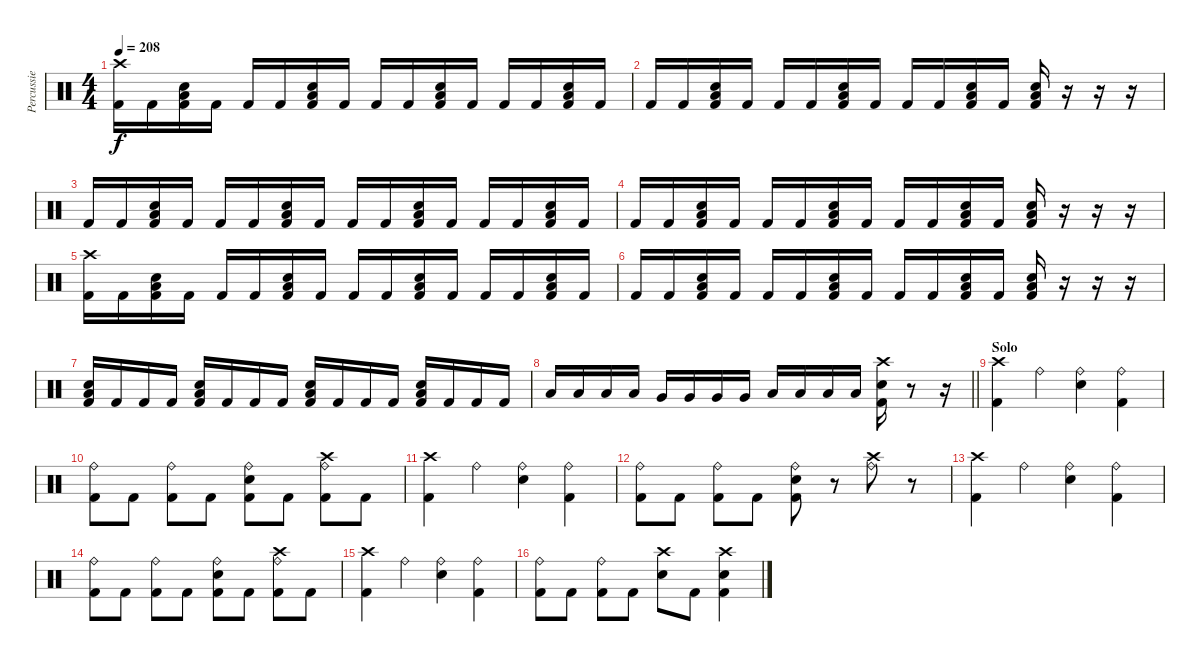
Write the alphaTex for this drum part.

\track ("Percussie" "Percussie") {instrument percussion}
\staff {score}
\articulation defaults
\ts (4 4)
\tempo 208
\clef neutral
\ks c
("Crash high (hit)" "Kick (hit) 2").16{dy f} "Kick (hit) 2".16 ("Low Tom (hit)" "Electric Snare (hit)" "Kick (hit) 2").16 "Kick (hit) 2".16 "Kick (hit) 2".16 "Kick (hit) 2".16 ("Low Tom (hit)" "Electric Snare (hit)" "Kick (hit) 2").16 "Kick (hit) 2".16 "Kick (hit) 2".16 "Kick (hit) 2".16 ("Low Tom (hit)" "Electric Snare (hit)" "Kick (hit) 2").16 "Kick (hit) 2".16 "Kick (hit) 2".16 "Kick (hit) 2".16 ("Low Tom (hit)" "Electric Snare (hit)" "Kick (hit) 2").16 "Kick (hit) 2".16 |
"Kick (hit) 2".16 "Kick (hit) 2".16 ("Low Tom (hit)" "Electric Snare (hit)" "Kick (hit) 2").16 "Kick (hit) 2".16 "Kick (hit) 2".16 "Kick (hit) 2".16 ("Low Tom (hit)" "Electric Snare (hit)" "Kick (hit) 2").16 "Kick (hit) 2".16 "Kick (hit) 2".16 "Kick (hit) 2".16 ("Low Tom (hit)" "Electric Snare (hit)" "Kick (hit) 2").16 "Kick (hit) 2".16 ("Low Tom (hit)" "Electric Snare (hit)" "Kick (hit) 2").16 r.16 r.16 r.16 |
"Kick (hit) 2".16 "Kick (hit) 2".16 ("Low Tom (hit)" "Electric Snare (hit)" "Kick (hit) 2").16 "Kick (hit) 2".16 "Kick (hit) 2".16 "Kick (hit) 2".16 ("Low Tom (hit)" "Electric Snare (hit)" "Kick (hit) 2").16 "Kick (hit) 2".16 "Kick (hit) 2".16 "Kick (hit) 2".16 ("Low Tom (hit)" "Electric Snare (hit)" "Kick (hit) 2").16 "Kick (hit) 2".16 "Kick (hit) 2".16 "Kick (hit) 2".16 ("Low Tom (hit)" "Electric Snare (hit)" "Kick (hit) 2").16 "Kick (hit) 2".16 |
"Kick (hit) 2".16 "Kick (hit) 2".16 ("Low Tom (hit)" "Electric Snare (hit)" "Kick (hit) 2").16 "Kick (hit) 2".16 "Kick (hit) 2".16 "Kick (hit) 2".16 ("Low Tom (hit)" "Electric Snare (hit)" "Kick (hit) 2").16 "Kick (hit) 2".16 "Kick (hit) 2".16 "Kick (hit) 2".16 ("Low Tom (hit)" "Electric Snare (hit)" "Kick (hit) 2").16 "Kick (hit) 2".16 ("Low Tom (hit)" "Electric Snare (hit)" "Kick (hit) 2").16 r.16 r.16 r.16 |
("Crash high (hit)" "Kick (hit) 2").16 "Kick (hit) 2".16 ("Low Tom (hit)" "Electric Snare (hit)" "Kick (hit) 2").16 "Kick (hit) 2".16 "Kick (hit) 2".16 "Kick (hit) 2".16 ("Low Tom (hit)" "Electric Snare (hit)" "Kick (hit) 2").16 "Kick (hit) 2".16 "Kick (hit) 2".16 "Kick (hit) 2".16 ("Low Tom (hit)" "Electric Snare (hit)" "Kick (hit) 2").16 "Kick (hit) 2".16 "Kick (hit) 2".16 "Kick (hit) 2".16 ("Low Tom (hit)" "Electric Snare (hit)" "Kick (hit) 2").16 "Kick (hit) 2".16 |
"Kick (hit) 2".16 "Kick (hit) 2".16 ("Low Tom (hit)" "Electric Snare (hit)" "Kick (hit) 2").16 "Kick (hit) 2".16 "Kick (hit) 2".16 "Kick (hit) 2".16 ("Low Tom (hit)" "Electric Snare (hit)" "Kick (hit) 2").16 "Kick (hit) 2".16 "Kick (hit) 2".16 "Kick (hit) 2".16 ("Low Tom (hit)" "Electric Snare (hit)" "Kick (hit) 2").16 "Kick (hit) 2".16 ("Low Tom (hit)" "Electric Snare (hit)" "Kick (hit) 2").16 r.16 r.16 r.16 |
("Low Tom (hit)" "Electric Snare (hit)" "Kick (hit) 2").16 "Kick (hit) 2".16 "Kick (hit) 2".16 "Kick (hit) 2".16 ("Low Tom (hit)" "Electric Snare (hit)" "Kick (hit) 2").16 "Kick (hit) 2".16 "Kick (hit) 2".16 "Kick (hit) 2".16 ("Low Tom (hit)" "Electric Snare (hit)" "Kick (hit) 2").16 "Kick (hit) 2".16 "Kick (hit) 2".16 "Kick (hit) 2".16 ("Low Tom (hit)" "Electric Snare (hit)" "Kick (hit) 2").16 "Kick (hit) 2".16 "Kick (hit) 2".16 "Kick (hit) 2".16 |
\barLineRight lightlight "Low Tom (hit)".16 "Low Tom (hit)".16 "Low Tom (hit)".16 "Low Tom (hit)".16 "Very Low Tom (hit)".16 "Very Low Tom (hit)".16 "Very Low Tom (hit)".16 "Very Low Tom (hit)".16 "Low Floor Tom (hit)".16 "Low Floor Tom (hit)".16 "Low Floor Tom (hit)".16 "Low Floor Tom (hit)".16
("Crash high (hit)" "Electric Snare (hit)" "Kick (hit) 2").16 r.8 r.16 |
\section ("" "Solo")
("Crash high (hit)" "Kick (hit) 2").4 "Ride (bell)".4 ("Ride (bell)" "Electric Snare (hit)").4 ("Ride (bell)" "Kick (hit) 2").4 |
("Ride (bell)" "Kick (hit) 2").8 "Kick (hit) 2".8 ("Ride (bell)" "Kick (hit) 2").8 "Kick (hit) 2".8 ("Ride (bell)" "Electric Snare (hit)" "Kick (hit) 2").8 "Kick (hit) 2".8 ("Ride (bell)" "Crash high (hit)" "Kick (hit) 2").8 "Kick (hit) 2".8 |
("Crash high (hit)" "Kick (hit) 2").4 "Ride (bell)".4 ("Ride (bell)" "Electric Snare (hit)").4 ("Ride (bell)" "Kick (hit) 2").4 |
("Ride (bell)" "Kick (hit) 2").8 "Kick (hit) 2".8 ("Ride (bell)" "Kick (hit) 2").8 "Kick (hit) 2".8 ("Ride (bell)" "Electric Snare (hit)" "Kick (hit) 2").8 r.8 ("Ride (bell)" "Crash high (hit)").8 r.8 |
("Crash high (hit)" "Kick (hit) 2").4 "Ride (bell)".4 ("Ride (bell)" "Electric Snare (hit)").4 ("Ride (bell)" "Kick (hit) 2").4 |
("Ride (bell)" "Kick (hit) 2").8 "Kick (hit) 2".8 ("Ride (bell)" "Kick (hit) 2").8 "Kick (hit) 2".8 ("Ride (bell)" "Electric Snare (hit)" "Kick (hit) 2").8 "Kick (hit) 2".8 ("Ride (bell)" "Crash high (hit)" "Kick (hit) 2").8 "Kick (hit) 2".8 |
("Crash high (hit)" "Kick (hit) 2").4 "Ride (bell)".4 ("Ride (bell)" "Electric Snare (hit)").4 ("Ride (bell)" "Kick (hit) 2").4 |
("Ride (bell)" "Kick (hit) 2").8 "Kick (hit) 2".8 ("Ride (bell)" "Kick (hit) 2").8 "Kick (hit) 2".8 ("Crash high (hit)" "Electric Snare (hit)").8 "Kick (hit) 2".8 ("Crash high (hit)" "Electric Snare (hit)" "Kick (hit) 2").4
